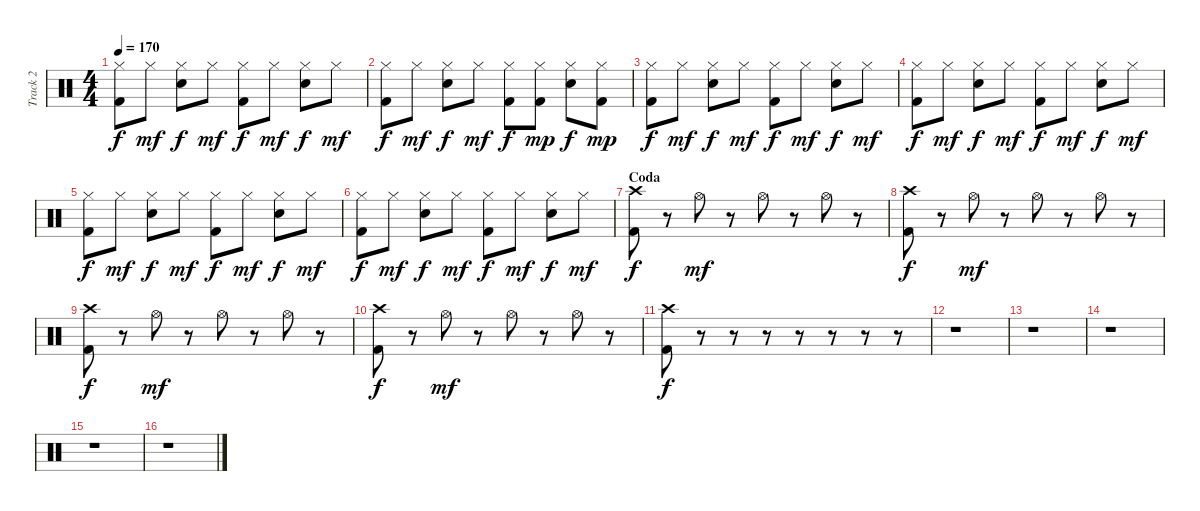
\track ("Track 2" "Track 2") {instrument percussion}
\staff {score}
\articulation defaults
\ts (4 4)
\tempo 170
\clef neutral
\ks c
("Hi-Hat (closed)" "Kick (hit) 2").8{dy f} "Hi-Hat (closed)".8{dy mf} ("Hi-Hat (closed)" "Electric Snare (hit)").8{dy f} "Hi-Hat (closed)".8{dy mf} ("Hi-Hat (closed)" "Kick (hit) 2").8{dy f} "Hi-Hat (closed)".8{dy mf} ("Hi-Hat (closed)" "Electric Snare (hit)").8{dy f} "Hi-Hat (closed)".8{dy mf} |
("Hi-Hat (closed)" "Kick (hit) 2").8{dy f} "Hi-Hat (closed)".8{dy mf} ("Hi-Hat (closed)" "Electric Snare (hit)").8{dy f} "Hi-Hat (closed)".8{dy mf} ("Hi-Hat (closed)" "Kick (hit) 2").8{dy f} ("Hi-Hat (closed)" "Kick (hit) 2").8{dy mp} ("Hi-Hat (closed)" "Electric Snare (hit)").8{dy f} ("Hi-Hat (closed)" "Kick (hit) 2").8{dy mp} |
("Hi-Hat (closed)" "Kick (hit) 2").8{dy f} "Hi-Hat (closed)".8{dy mf} ("Hi-Hat (closed)" "Electric Snare (hit)").8{dy f} "Hi-Hat (closed)".8{dy mf} ("Hi-Hat (closed)" "Kick (hit) 2").8{dy f} "Hi-Hat (closed)".8{dy mf} ("Hi-Hat (closed)" "Electric Snare (hit)").8{dy f} "Hi-Hat (closed)".8{dy mf} |
("Hi-Hat (closed)" "Kick (hit) 2").8{dy f} "Hi-Hat (closed)".8{dy mf} ("Hi-Hat (closed)" "Electric Snare (hit)").8{dy f} "Hi-Hat (closed)".8{dy mf} ("Hi-Hat (closed)" "Kick (hit) 2").8{dy f} "Hi-Hat (closed)".8{dy mf} ("Hi-Hat (closed)" "Electric Snare (hit)").8{dy f} "Hi-Hat (closed)".8{dy mf} |
("Hi-Hat (closed)" "Kick (hit) 2").8{dy f} "Hi-Hat (closed)".8{dy mf} ("Hi-Hat (closed)" "Electric Snare (hit)").8{dy f} "Hi-Hat (closed)".8{dy mf} ("Hi-Hat (closed)" "Kick (hit) 2").8{dy f} "Hi-Hat (closed)".8{dy mf} ("Hi-Hat (closed)" "Electric Snare (hit)").8{dy f} "Hi-Hat (closed)".8{dy mf} |
("Hi-Hat (closed)" "Kick (hit) 2").8{dy f} "Hi-Hat (closed)".8{dy mf} ("Hi-Hat (closed)" "Electric Snare (hit)").8{dy f} "Hi-Hat (closed)".8{dy mf} ("Hi-Hat (closed)" "Kick (hit) 2").8{dy f} "Hi-Hat (closed)".8{dy mf} ("Hi-Hat (closed)" "Electric Snare (hit)").8{dy f} "Hi-Hat (closed)".8{dy mf} |
\section ("" "Coda")
("Crash high (hit)" "Kick (hit) 2").8{dy f} r.8 "Hi-Hat (open)".8{dy mf} r.8 "Hi-Hat (open)".8 r.8 "Hi-Hat (open)".8 r.8 |
("Crash high (hit)" "Kick (hit) 2").8{dy f} r.8 "Hi-Hat (open)".8{dy mf} r.8 "Hi-Hat (open)".8 r.8 "Hi-Hat (open)".8 r.8 |
("Crash high (hit)" "Kick (hit) 2").8{dy f} r.8 "Hi-Hat (open)".8{dy mf} r.8 "Hi-Hat (open)".8 r.8 "Hi-Hat (open)".8 r.8 |
("Crash high (hit)" "Kick (hit) 2").8{dy f} r.8 "Hi-Hat (open)".8{dy mf} r.8 "Hi-Hat (open)".8 r.8 "Hi-Hat (open)".8 r.8 |
("Crash high (hit)" "Kick (hit) 2").8{dy f} r.8 r.8 r.8 r.8 r.8 r.8 r.8 |
r.1 |
r.1 |
r.1 |
r.1 |
r.1
